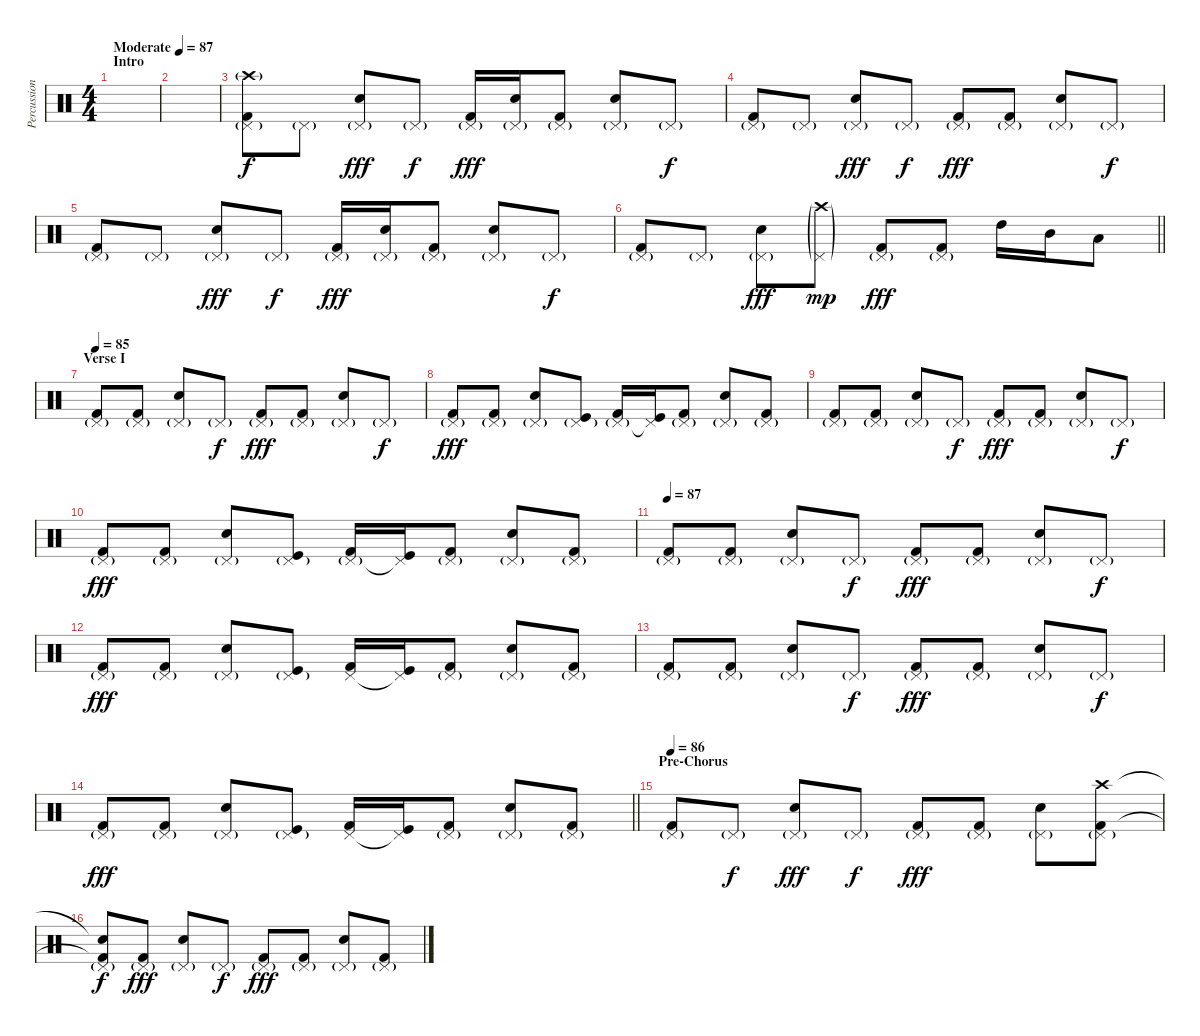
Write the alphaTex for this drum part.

\track ("Percussion" "Percussion") {instrument percussion}
\staff {score}
\articulation defaults
\ts (4 4)
\section ("" "Intro")
\tempo (87 "Moderate")
\clef neutral
\ks c
|
|
("Pedal Hi-Hat (hit)"{g} "Kick (hit) 2" "Crash high (hit)"{g}).8 "Pedal Hi-Hat (hit)"{g}.8 ("Pedal Hi-Hat (hit)"{g} "Snare (hit) 2").8{dy fff} "Pedal Hi-Hat (hit)"{g}.8{dy f} ("Pedal Hi-Hat (hit)"{g} "Kick (hit) 2").16{dy fff} ("Pedal Hi-Hat (hit)"{g} "Snare (hit) 2").16 ("Pedal Hi-Hat (hit)"{g} "Kick (hit) 2").8 ("Pedal Hi-Hat (hit)"{g} "Snare (hit) 2").8 "Pedal Hi-Hat (hit)"{g}.8{dy f} |
("Pedal Hi-Hat (hit)"{g} "Kick (hit) 2").8 "Pedal Hi-Hat (hit)"{g}.8 ("Pedal Hi-Hat (hit)"{g} "Snare (hit) 2").8{dy fff} "Pedal Hi-Hat (hit)"{g}.8{dy f} ("Pedal Hi-Hat (hit)"{g} "Kick (hit) 2").8{dy fff} ("Pedal Hi-Hat (hit)"{g} "Kick (hit) 2").8 ("Pedal Hi-Hat (hit)"{g} "Snare (hit) 2").8 "Pedal Hi-Hat (hit)"{g}.8{dy f} |
("Pedal Hi-Hat (hit)"{g} "Kick (hit) 2").8 "Pedal Hi-Hat (hit)"{g}.8 ("Pedal Hi-Hat (hit)"{g} "Snare (hit) 2").8{dy fff} "Pedal Hi-Hat (hit)"{g}.8{dy f} ("Pedal Hi-Hat (hit)"{g} "Kick (hit) 2").16{dy fff} ("Pedal Hi-Hat (hit)"{g} "Snare (hit) 2").16 ("Pedal Hi-Hat (hit)"{g} "Kick (hit) 2").8 ("Pedal Hi-Hat (hit)"{g} "Snare (hit) 2").8 "Pedal Hi-Hat (hit)"{g}.8{dy f} |
\barLineRight lightlight
("Pedal Hi-Hat (hit)"{g} "Kick (hit) 2").8 "Pedal Hi-Hat (hit)"{g}.8 ("Pedal Hi-Hat (hit)"{g} "Snare (hit) 2").8{dy fff} ("Pedal Hi-Hat (hit)"{g} "Crash high (hit)"{g}).8{dy mp} ("Pedal Hi-Hat (hit)"{g} "Kick (hit) 2").8{dy fff} ("Pedal Hi-Hat (hit)"{g} "Kick (hit) 2").8 "High Tom (hit)".16 "Mid Tom (hit)".16 "Low Tom (hit)".8 |
\section ("" "Verse I")
\tempo 85
("Pedal Hi-Hat (hit)"{g} "Kick (hit) 2").8 ("Pedal Hi-Hat (hit)"{g} "Kick (hit) 2").8 ("Pedal Hi-Hat (hit)"{g} "Snare (hit) 2").8 "Pedal Hi-Hat (hit)"{g}.8{dy f} ("Pedal Hi-Hat (hit)"{g} "Kick (hit) 2").8{dy fff} ("Pedal Hi-Hat (hit)"{g} "Kick (hit) 2").8 ("Pedal Hi-Hat (hit)"{g} "Snare (hit) 2").8 "Pedal Hi-Hat (hit)"{g}.8{dy f} |
("Pedal Hi-Hat (hit)"{g} "Kick (hit) 2").8{dy fff} ("Pedal Hi-Hat (hit)"{g} "Kick (hit) 2").8 ("Pedal Hi-Hat (hit)"{g} "Snare (hit) 2").8 ("Pedal Hi-Hat (hit)"{g} "Kick (hit)").8 ("Pedal Hi-Hat (hit)"{g} "Kick (hit) 2").16 ("Pedal Hi-Hat (hit)"{t} "Kick (hit)").16 ("Pedal Hi-Hat (hit)"{g} "Kick (hit) 2").8 ("Pedal Hi-Hat (hit)"{g} "Snare (hit) 2").8 ("Pedal Hi-Hat (hit)"{g} "Kick (hit) 2").8 |
("Pedal Hi-Hat (hit)"{g} "Kick (hit) 2").8 ("Pedal Hi-Hat (hit)"{g} "Kick (hit) 2").8 ("Pedal Hi-Hat (hit)"{g} "Snare (hit) 2").8 "Pedal Hi-Hat (hit)"{g}.8{dy f} ("Pedal Hi-Hat (hit)"{g} "Kick (hit) 2").8{dy fff} ("Pedal Hi-Hat (hit)"{g} "Kick (hit) 2").8 ("Pedal Hi-Hat (hit)"{g} "Snare (hit) 2").8 "Pedal Hi-Hat (hit)"{g}.8{dy f} |
("Pedal Hi-Hat (hit)"{g} "Kick (hit) 2").8{dy fff} ("Pedal Hi-Hat (hit)"{g} "Kick (hit) 2").8 ("Pedal Hi-Hat (hit)"{g} "Snare (hit) 2").8 ("Pedal Hi-Hat (hit)"{g} "Kick (hit)").8 ("Pedal Hi-Hat (hit)"{g} "Kick (hit) 2").16 ("Pedal Hi-Hat (hit)"{t} "Kick (hit)").16 ("Pedal Hi-Hat (hit)"{g} "Kick (hit) 2").8 ("Pedal Hi-Hat (hit)"{g} "Snare (hit) 2").8 ("Pedal Hi-Hat (hit)"{g} "Kick (hit) 2").8 |
\tempo 87
("Pedal Hi-Hat (hit)"{g} "Kick (hit) 2").8 ("Pedal Hi-Hat (hit)"{g} "Kick (hit) 2").8 ("Pedal Hi-Hat (hit)"{g} "Snare (hit) 2").8 "Pedal Hi-Hat (hit)"{g}.8{dy f} ("Pedal Hi-Hat (hit)"{g} "Kick (hit) 2").8{dy fff} ("Pedal Hi-Hat (hit)"{g} "Kick (hit) 2").8 ("Pedal Hi-Hat (hit)"{g} "Snare (hit) 2").8 "Pedal Hi-Hat (hit)"{g}.8{dy f} |
("Pedal Hi-Hat (hit)"{g} "Kick (hit) 2").8{dy fff} ("Pedal Hi-Hat (hit)"{g} "Kick (hit) 2").8 ("Pedal Hi-Hat (hit)"{g} "Snare (hit) 2").8 ("Pedal Hi-Hat (hit)"{g} "Kick (hit)").8 ("Pedal Hi-Hat (hit)" "Kick (hit) 2").16 ("Pedal Hi-Hat (hit)"{t} "Kick (hit)").16 ("Pedal Hi-Hat (hit)"{g} "Kick (hit) 2").8 ("Pedal Hi-Hat (hit)"{g} "Snare (hit) 2").8 ("Pedal Hi-Hat (hit)"{g} "Kick (hit) 2").8 |
("Pedal Hi-Hat (hit)"{g} "Kick (hit) 2").8 ("Pedal Hi-Hat (hit)"{g} "Kick (hit) 2").8 ("Pedal Hi-Hat (hit)"{g} "Snare (hit) 2").8 "Pedal Hi-Hat (hit)"{g}.8{dy f} ("Pedal Hi-Hat (hit)"{g} "Kick (hit) 2").8{dy fff} ("Pedal Hi-Hat (hit)"{g} "Kick (hit) 2").8 ("Pedal Hi-Hat (hit)"{g} "Snare (hit) 2").8 "Pedal Hi-Hat (hit)"{g}.8{dy f} |
\barLineRight lightlight
("Pedal Hi-Hat (hit)"{g} "Kick (hit) 2").8{dy fff} ("Pedal Hi-Hat (hit)"{g} "Kick (hit) 2").8 ("Pedal Hi-Hat (hit)"{g} "Snare (hit) 2").8 ("Pedal Hi-Hat (hit)"{g} "Kick (hit)").8 ("Pedal Hi-Hat (hit)" "Kick (hit) 2").16 ("Pedal Hi-Hat (hit)"{t} "Kick (hit)").16 ("Pedal Hi-Hat (hit)"{g} "Kick (hit) 2").8 ("Pedal Hi-Hat (hit)"{g} "Snare (hit) 2").8 ("Pedal Hi-Hat (hit)"{g} "Kick (hit) 2").8 |
\section ("" "Pre-Chorus")
\tempo 86
("Pedal Hi-Hat (hit)"{g} "Kick (hit) 2").8 "Pedal Hi-Hat (hit)"{g}.8{dy f} ("Pedal Hi-Hat (hit)"{g} "Snare (hit) 2").8{dy fff} "Pedal Hi-Hat (hit)"{g}.8{dy f} ("Pedal Hi-Hat (hit)"{g} "Kick (hit) 2").8{dy fff} ("Pedal Hi-Hat (hit)"{g} "Kick (hit) 2").8 ("Pedal Hi-Hat (hit)"{g} "Snare (hit) 2").8 ("Pedal Hi-Hat (hit)"{g} "Kick (hit) 2" "Crash high (hit)").8 |
("Pedal Hi-Hat (hit)"{g} "Kick (hit) 2"{t} "Snare (hit)"{t}).8{dy f} ("Pedal Hi-Hat (hit)"{g} "Kick (hit) 2").8{dy fff} ("Pedal Hi-Hat (hit)"{g} "Snare (hit) 2").8 "Pedal Hi-Hat (hit)"{g}.8{dy f} ("Pedal Hi-Hat (hit)"{g} "Kick (hit) 2").8{dy fff} ("Pedal Hi-Hat (hit)"{g} "Kick (hit) 2").8 ("Pedal Hi-Hat (hit)"{g} "Snare (hit) 2").8 ("Pedal Hi-Hat (hit)"{g} "Kick (hit) 2").8
